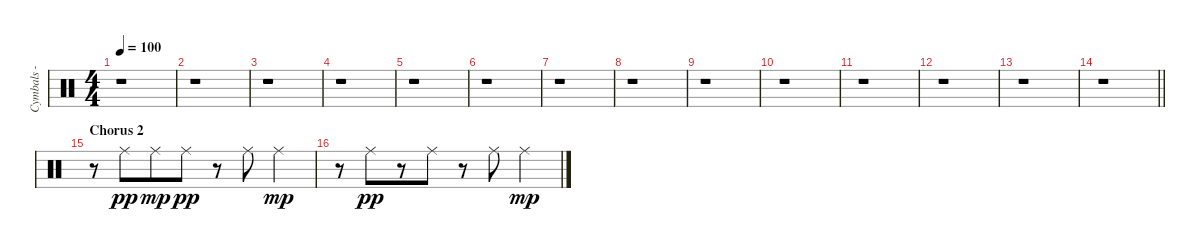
\track ("Cymbals - ride" "Cymbals - ") {instrument percussion}
\staff {score}
\articulation defaults
\ts (4 4)
\tempo 100
\clef neutral
\ks c
r.1{dy mp} |
r.1 |
r.1 |
r.1 |
r.1 |
r.1 |
r.1 |
r.1 |
r.1 |
r.1 |
r.1 |
r.1 |
r.1 |
\barLineRight lightlight
r.1 |
\section ("" "Chorus 2")
r.8 "Ride (middle)".8{dy pp beam merge} "Ride (middle)".8{dy mp} "Ride (middle)".8{dy pp} r.8 "Ride (middle)".8 "Ride (middle)".4{dy mp} |
r.8 "Ride (middle)".8{dy pp beam merge} r.8 "Ride (middle)".8 r.8 "Ride (middle)".8 "Ride (middle)".4{dy mp}
